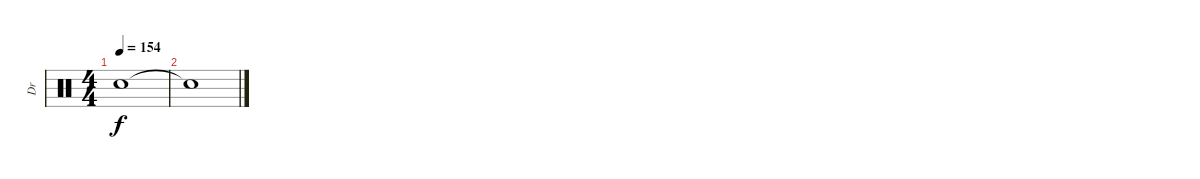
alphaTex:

\track ("Dr" "Dr") {instrument percussion}
\staff {score}
\articulation defaults
\ts (4 4)
\tempo 154
\clef neutral
\ks c "Snare (hit)"{t}.1{dy f}
|
"Snare (hit)"{t}.1
